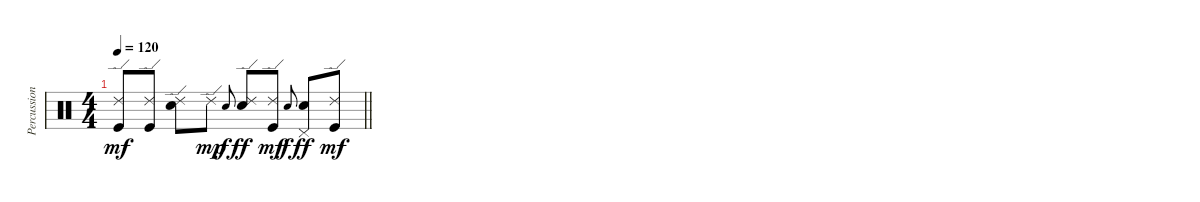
\track ("Percussion" "Percussion") {instrument percussion}
\staff {score}
\articulation defaults
\ts (4 4)
\tempo 120
\clef neutral
\barLineRight lightlight
\ks c
("Ride (edge) 2" "Kick (hit)").8{dy mf} ("Ride (edge) 2" "Kick (hit)").8 ("Ride (edge) 2" "Electric Snare (hit)").8 "Ride (edge) 2".8{dy mp} "Electric Snare (hit)".8{gr onbeat dy f} ("Ride (edge) 2" "Electric Snare (hit)").8{dy ff} ("Ride (edge) 2" "Kick (hit)").8{dy mf} "Electric Snare (hit)".8{gr onbeat dy f} ("Pedal Hi-Hat (hit)" "Electric Snare (hit)").8{dy ff} ("Ride (edge) 2" "Kick (hit)").8{dy mf}
